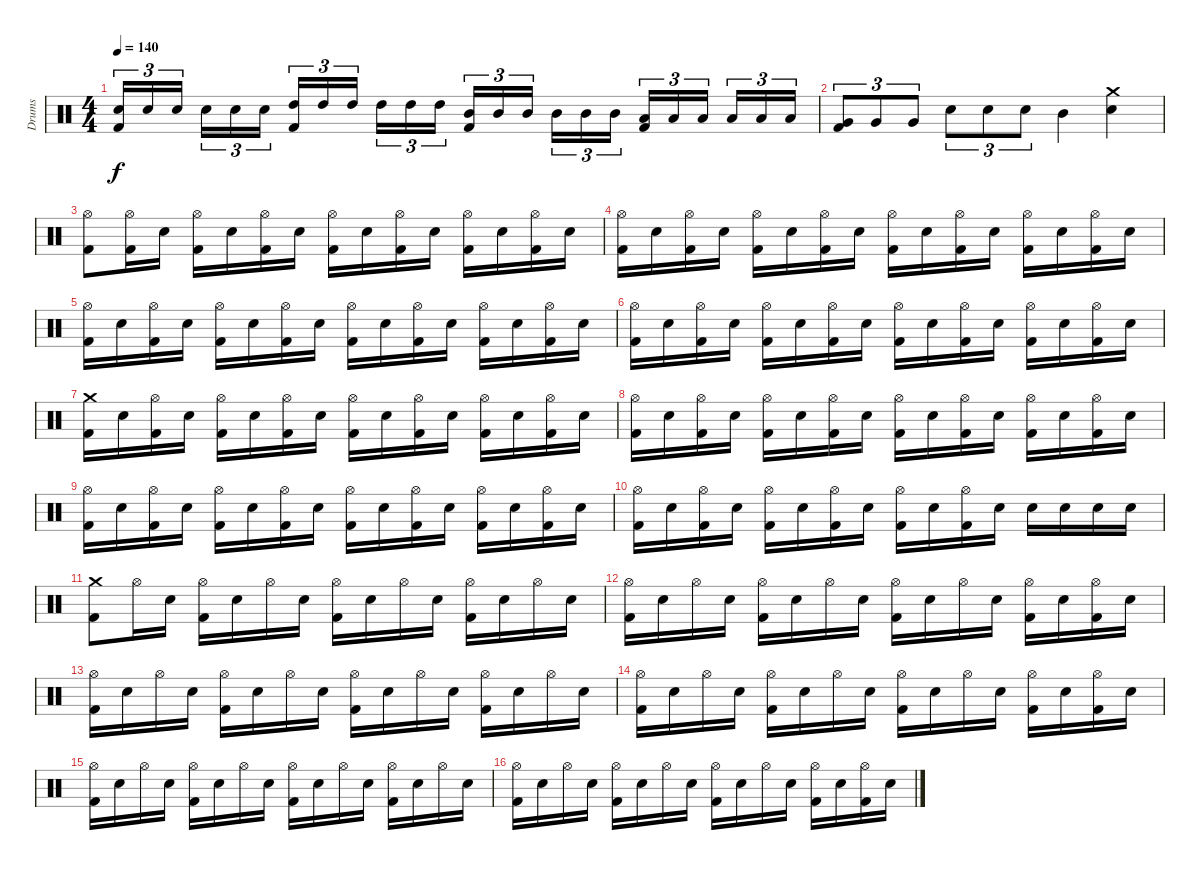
\track ("Drums" "Drums") {instrument percussion}
\staff {score}
\articulation defaults
\ts (4 4)
\tempo 140
\clef neutral
\ks c
("Electric Snare (hit)" "Kick (hit) 2").16{tu (3 2) dy f} "Electric Snare (hit)".16{tu (3 2)} "Electric Snare (hit)".16{tu (3 2)} "Electric Snare (hit)".16{tu (3 2)} "Electric Snare (hit)".16{tu (3 2)} "Electric Snare (hit)".16{tu (3 2)} ("High Tom (hit)" "Kick (hit) 2").16{tu (3 2)} "High Tom (hit)".16{tu (3 2)} "High Tom (hit)".16{tu (3 2)} "High Tom (hit)".16{tu (3 2)} "High Tom (hit)".16{tu (3 2)} "High Tom (hit)".16{tu (3 2)} ("Mid Tom (hit)" "Kick (hit) 2").16{tu (3 2)} "Mid Tom (hit)".16{tu (3 2)} "Mid Tom (hit)".16{tu (3 2)} "Mid Tom (hit)".16{tu (3 2)} "Mid Tom (hit)".16{tu (3 2)} "Mid Tom (hit)".16{tu (3 2)} ("Low Tom (hit)" "Kick (hit) 2").16{tu (3 2)} "Low Tom (hit)".16{tu (3 2)} "Low Tom (hit)".16{tu (3 2)} "Low Tom (hit)".16{tu (3 2)} "Low Tom (hit)".16{tu (3 2)} "Low Tom (hit)".16{tu (3 2)} |
("Very Low Tom (hit)" "Kick (hit) 2").8{tu (3 2)} "Very Low Tom (hit)".8{tu (3 2)} "Very Low Tom (hit)".8{tu (3 2)} "Electric Snare (hit)".8{tu (3 2)} "Electric Snare (hit)".8{tu (3 2)} "Electric Snare (hit)".8{tu (3 2)} "Mid Tom (hit)".4 ("Crash medium (hit)" "Electric Snare (hit)").4 |
("Hi-Hat (open)" "Kick (hit) 2").8 ("Hi-Hat (open)" "Kick (hit) 2").16 "Electric Snare (hit)".16 ("Hi-Hat (open)" "Kick (hit) 2").16 "Electric Snare (hit)".16 ("Hi-Hat (open)" "Kick (hit) 2").16 "Electric Snare (hit)".16 ("Hi-Hat (open)" "Kick (hit) 2").16 "Electric Snare (hit)".16 ("Hi-Hat (open)" "Kick (hit) 2").16 "Electric Snare (hit)".16 ("Hi-Hat (open)" "Kick (hit) 2").16 "Electric Snare (hit)".16 ("Hi-Hat (open)" "Kick (hit) 2").16 "Electric Snare (hit)".16 |
("Hi-Hat (open)" "Kick (hit) 2").16 "Electric Snare (hit)".16 ("Hi-Hat (open)" "Kick (hit) 2").16 "Electric Snare (hit)".16 ("Hi-Hat (open)" "Kick (hit) 2").16 "Electric Snare (hit)".16 ("Hi-Hat (open)" "Kick (hit) 2").16 "Electric Snare (hit)".16 ("Hi-Hat (open)" "Kick (hit) 2").16 "Electric Snare (hit)".16 ("Hi-Hat (open)" "Kick (hit) 2").16 "Electric Snare (hit)".16 ("Hi-Hat (open)" "Kick (hit) 2").16 "Electric Snare (hit)".16 ("Hi-Hat (open)" "Kick (hit) 2").16 "Electric Snare (hit)".16 |
("Hi-Hat (open)" "Kick (hit) 2").16 "Electric Snare (hit)".16 ("Hi-Hat (open)" "Kick (hit) 2").16 "Electric Snare (hit)".16 ("Hi-Hat (open)" "Kick (hit) 2").16 "Electric Snare (hit)".16 ("Hi-Hat (open)" "Kick (hit) 2").16 "Electric Snare (hit)".16 ("Hi-Hat (open)" "Kick (hit) 2").16 "Electric Snare (hit)".16 ("Hi-Hat (open)" "Kick (hit) 2").16 "Electric Snare (hit)".16 ("Hi-Hat (open)" "Kick (hit) 2").16 "Electric Snare (hit)".16 ("Hi-Hat (open)" "Kick (hit) 2").16 "Electric Snare (hit)".16 |
("Hi-Hat (open)" "Kick (hit) 2").16 "Electric Snare (hit)".16 ("Hi-Hat (open)" "Kick (hit) 2").16 "Electric Snare (hit)".16 ("Hi-Hat (open)" "Kick (hit) 2").16 "Electric Snare (hit)".16 ("Hi-Hat (open)" "Kick (hit) 2").16 "Electric Snare (hit)".16 ("Hi-Hat (open)" "Kick (hit) 2").16 "Electric Snare (hit)".16 ("Hi-Hat (open)" "Kick (hit) 2").16 "Electric Snare (hit)".16 ("Hi-Hat (open)" "Kick (hit) 2").16 "Electric Snare (hit)".16 ("Hi-Hat (open)" "Kick (hit) 2").16 "Electric Snare (hit)".16 |
("Crash medium (hit)" "Kick (hit) 2").16 "Electric Snare (hit)".16 ("Hi-Hat (open)" "Kick (hit) 2").16 "Electric Snare (hit)".16 ("Hi-Hat (open)" "Kick (hit) 2").16 "Electric Snare (hit)".16 ("Hi-Hat (open)" "Kick (hit) 2").16 "Electric Snare (hit)".16 ("Hi-Hat (open)" "Kick (hit) 2").16 "Electric Snare (hit)".16 ("Hi-Hat (open)" "Kick (hit) 2").16 "Electric Snare (hit)".16 ("Hi-Hat (open)" "Kick (hit) 2").16 "Electric Snare (hit)".16 ("Hi-Hat (open)" "Kick (hit) 2").16 "Electric Snare (hit)".16 |
("Hi-Hat (open)" "Kick (hit) 2").16 "Electric Snare (hit)".16 ("Hi-Hat (open)" "Kick (hit) 2").16 "Electric Snare (hit)".16 ("Hi-Hat (open)" "Kick (hit) 2").16 "Electric Snare (hit)".16 ("Hi-Hat (open)" "Kick (hit) 2").16 "Electric Snare (hit)".16 ("Hi-Hat (open)" "Kick (hit) 2").16 "Electric Snare (hit)".16 ("Hi-Hat (open)" "Kick (hit) 2").16 "Electric Snare (hit)".16 ("Hi-Hat (open)" "Kick (hit) 2").16 "Electric Snare (hit)".16 ("Hi-Hat (open)" "Kick (hit) 2").16 "Electric Snare (hit)".16 |
("Hi-Hat (open)" "Kick (hit) 2").16 "Electric Snare (hit)".16 ("Hi-Hat (open)" "Kick (hit) 2").16 "Electric Snare (hit)".16 ("Hi-Hat (open)" "Kick (hit) 2").16 "Electric Snare (hit)".16 ("Hi-Hat (open)" "Kick (hit) 2").16 "Electric Snare (hit)".16 ("Hi-Hat (open)" "Kick (hit) 2").16 "Electric Snare (hit)".16 ("Hi-Hat (open)" "Kick (hit) 2").16 "Electric Snare (hit)".16 ("Hi-Hat (open)" "Kick (hit) 2").16 "Electric Snare (hit)".16 ("Hi-Hat (open)" "Kick (hit) 2").16 "Electric Snare (hit)".16 |
("Hi-Hat (open)" "Kick (hit) 2").16 "Electric Snare (hit)".16 ("Hi-Hat (open)" "Kick (hit) 2").16 "Electric Snare (hit)".16 ("Hi-Hat (open)" "Kick (hit) 2").16 "Electric Snare (hit)".16 ("Hi-Hat (open)" "Kick (hit) 2").16 "Electric Snare (hit)".16 ("Hi-Hat (open)" "Kick (hit) 2").16 "Electric Snare (hit)".16 ("Hi-Hat (open)" "Kick (hit) 2").16 "Electric Snare (hit)".16 "Electric Snare (hit)".16 "Electric Snare (hit)".16 "Electric Snare (hit)".16 "Electric Snare (hit)".16 |
("Crash medium (hit)" "Kick (hit) 2").8 "Hi-Hat (open)".16 "Electric Snare (hit)".16 ("Hi-Hat (open)" "Kick (hit) 2").16 "Electric Snare (hit)".16 "Hi-Hat (open)".16 "Electric Snare (hit)".16 ("Hi-Hat (open)" "Kick (hit) 2").16 "Electric Snare (hit)".16 "Hi-Hat (open)".16 "Electric Snare (hit)".16 ("Hi-Hat (open)" "Kick (hit) 2").16 "Electric Snare (hit)".16 "Hi-Hat (open)".16 "Electric Snare (hit)".16 |
("Hi-Hat (open)" "Kick (hit) 2").16 "Electric Snare (hit)".16 "Hi-Hat (open)".16 "Electric Snare (hit)".16 ("Hi-Hat (open)" "Kick (hit) 2").16 "Electric Snare (hit)".16 "Hi-Hat (open)".16 "Electric Snare (hit)".16 ("Hi-Hat (open)" "Kick (hit) 2").16 "Electric Snare (hit)".16 "Hi-Hat (open)".16 "Electric Snare (hit)".16 ("Hi-Hat (open)" "Kick (hit) 2").16 "Electric Snare (hit)".16 ("Hi-Hat (open)" "Kick (hit) 2").16 "Electric Snare (hit)".16 |
("Hi-Hat (open)" "Kick (hit) 2").16 "Electric Snare (hit)".16 "Hi-Hat (open)".16 "Electric Snare (hit)".16 ("Hi-Hat (open)" "Kick (hit) 2").16 "Electric Snare (hit)".16 "Hi-Hat (open)".16 "Electric Snare (hit)".16 ("Hi-Hat (open)" "Kick (hit) 2").16 "Electric Snare (hit)".16 "Hi-Hat (open)".16 "Electric Snare (hit)".16 ("Hi-Hat (open)" "Kick (hit) 2").16 "Electric Snare (hit)".16 "Hi-Hat (open)".16 "Electric Snare (hit)".16 |
("Hi-Hat (open)" "Kick (hit) 2").16 "Electric Snare (hit)".16 "Hi-Hat (open)".16 "Electric Snare (hit)".16 ("Hi-Hat (open)" "Kick (hit) 2").16 "Electric Snare (hit)".16 "Hi-Hat (open)".16 "Electric Snare (hit)".16 ("Hi-Hat (open)" "Kick (hit) 2").16 "Electric Snare (hit)".16 "Hi-Hat (open)".16 "Electric Snare (hit)".16 ("Hi-Hat (open)" "Kick (hit) 2").16 "Electric Snare (hit)".16 ("Hi-Hat (open)" "Kick (hit) 2").16 "Electric Snare (hit)".16 |
("Hi-Hat (open)" "Kick (hit) 2").16 "Electric Snare (hit)".16 "Hi-Hat (open)".16 "Electric Snare (hit)".16 ("Hi-Hat (open)" "Kick (hit) 2").16 "Electric Snare (hit)".16 "Hi-Hat (open)".16 "Electric Snare (hit)".16 ("Hi-Hat (open)" "Kick (hit) 2").16 "Electric Snare (hit)".16 "Hi-Hat (open)".16 "Electric Snare (hit)".16 ("Hi-Hat (open)" "Kick (hit) 2").16 "Electric Snare (hit)".16 "Hi-Hat (open)".16 "Electric Snare (hit)".16 |
("Hi-Hat (open)" "Kick (hit) 2").16 "Electric Snare (hit)".16 "Hi-Hat (open)".16 "Electric Snare (hit)".16 ("Hi-Hat (open)" "Kick (hit) 2").16 "Electric Snare (hit)".16 "Hi-Hat (open)".16 "Electric Snare (hit)".16 ("Hi-Hat (open)" "Kick (hit) 2").16 "Electric Snare (hit)".16 "Hi-Hat (open)".16 "Electric Snare (hit)".16 ("Hi-Hat (open)" "Kick (hit) 2").16 "Electric Snare (hit)".16 ("Hi-Hat (open)" "Kick (hit) 2").16 "Electric Snare (hit)".16
